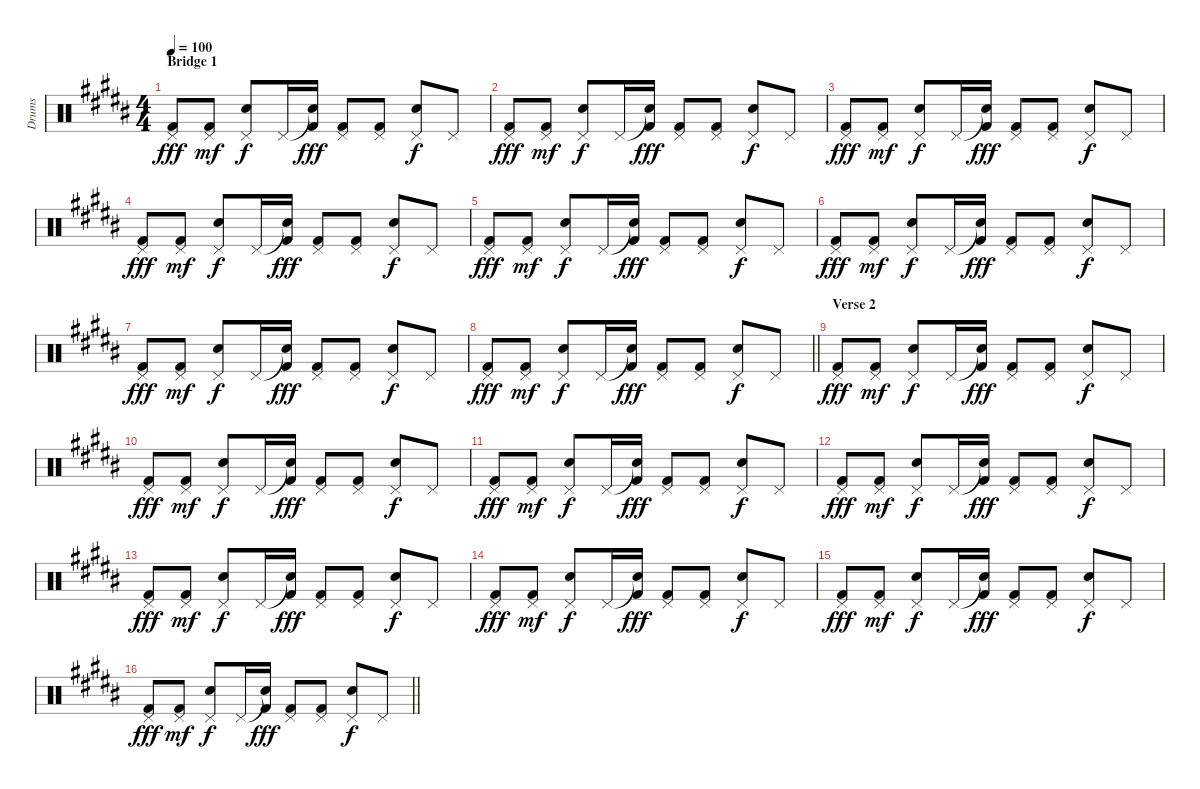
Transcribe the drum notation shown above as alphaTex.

\track ("Drums" "Drums") {instrument percussion}
\staff {score}
\articulation defaults
\ts (4 4)
\section ("" "Bridge 1")
\tempo 100
\clef neutral
\ks b
("Pedal Hi-Hat (hit)" "Kick (hit) 2").8{dy fff} ("Pedal Hi-Hat (hit)" "Kick (hit) 2").8{dy mf} ("Pedal Hi-Hat (hit)" "Snare (hit) 2").8{dy f} "Pedal Hi-Hat (hit)".16 ("Snare (hit)"{t} "Kick (hit) 2").16{dy fff} ("Pedal Hi-Hat (hit)" "Kick (hit) 2").8 ("Pedal Hi-Hat (hit)" "Kick (hit) 2").8 ("Pedal Hi-Hat (hit)" "Snare (hit) 2").8{dy f} "Pedal Hi-Hat (hit)".8 |
("Pedal Hi-Hat (hit)" "Kick (hit) 2").8{dy fff} ("Pedal Hi-Hat (hit)" "Kick (hit) 2").8{dy mf} ("Pedal Hi-Hat (hit)" "Snare (hit) 2").8{dy f} "Pedal Hi-Hat (hit)".16 ("Snare (hit)"{t} "Kick (hit) 2").16{dy fff} ("Pedal Hi-Hat (hit)" "Kick (hit) 2").8 ("Pedal Hi-Hat (hit)" "Kick (hit) 2").8 ("Pedal Hi-Hat (hit)" "Snare (hit) 2").8{dy f} "Pedal Hi-Hat (hit)".8 |
("Pedal Hi-Hat (hit)" "Kick (hit) 2").8{dy fff} ("Pedal Hi-Hat (hit)" "Kick (hit) 2").8{dy mf} ("Pedal Hi-Hat (hit)" "Snare (hit) 2").8{dy f} "Pedal Hi-Hat (hit)".16 ("Snare (hit)"{t} "Kick (hit) 2").16{dy fff} ("Pedal Hi-Hat (hit)" "Kick (hit) 2").8 ("Pedal Hi-Hat (hit)" "Kick (hit) 2").8 ("Pedal Hi-Hat (hit)" "Snare (hit) 2").8{dy f} "Pedal Hi-Hat (hit)".8 |
("Pedal Hi-Hat (hit)" "Kick (hit) 2").8{dy fff} ("Pedal Hi-Hat (hit)" "Kick (hit) 2").8{dy mf} ("Pedal Hi-Hat (hit)" "Snare (hit) 2").8{dy f} "Pedal Hi-Hat (hit)".16 ("Snare (hit)"{t} "Kick (hit) 2").16{dy fff} ("Pedal Hi-Hat (hit)" "Kick (hit) 2").8 ("Pedal Hi-Hat (hit)" "Kick (hit) 2").8 ("Pedal Hi-Hat (hit)" "Snare (hit) 2").8{dy f} "Pedal Hi-Hat (hit)".8 |
("Pedal Hi-Hat (hit)" "Kick (hit) 2").8{dy fff} ("Pedal Hi-Hat (hit)" "Kick (hit) 2").8{dy mf} ("Pedal Hi-Hat (hit)" "Snare (hit) 2").8{dy f} "Pedal Hi-Hat (hit)".16 ("Snare (hit)"{t} "Kick (hit) 2").16{dy fff} ("Pedal Hi-Hat (hit)" "Kick (hit) 2").8 ("Pedal Hi-Hat (hit)" "Kick (hit) 2").8 ("Pedal Hi-Hat (hit)" "Snare (hit) 2").8{dy f} "Pedal Hi-Hat (hit)".8 |
("Pedal Hi-Hat (hit)" "Kick (hit) 2").8{dy fff} ("Pedal Hi-Hat (hit)" "Kick (hit) 2").8{dy mf} ("Pedal Hi-Hat (hit)" "Snare (hit) 2").8{dy f} "Pedal Hi-Hat (hit)".16 ("Snare (hit)"{t} "Kick (hit) 2").16{dy fff} ("Pedal Hi-Hat (hit)" "Kick (hit) 2").8 ("Pedal Hi-Hat (hit)" "Kick (hit) 2").8 ("Pedal Hi-Hat (hit)" "Snare (hit) 2").8{dy f} "Pedal Hi-Hat (hit)".8 |
("Pedal Hi-Hat (hit)" "Kick (hit) 2").8{dy fff} ("Pedal Hi-Hat (hit)" "Kick (hit) 2").8{dy mf} ("Pedal Hi-Hat (hit)" "Snare (hit) 2").8{dy f} "Pedal Hi-Hat (hit)".16 ("Snare (hit)"{t} "Kick (hit) 2").16{dy fff} ("Pedal Hi-Hat (hit)" "Kick (hit) 2").8 ("Pedal Hi-Hat (hit)" "Kick (hit) 2").8 ("Pedal Hi-Hat (hit)" "Snare (hit) 2").8{dy f} "Pedal Hi-Hat (hit)".8 |
\barLineRight lightlight
("Pedal Hi-Hat (hit)" "Kick (hit) 2").8{dy fff} ("Pedal Hi-Hat (hit)" "Kick (hit) 2").8{dy mf} ("Pedal Hi-Hat (hit)" "Snare (hit) 2").8{dy f} "Pedal Hi-Hat (hit)".16 ("Snare (hit)"{t} "Kick (hit) 2").16{dy fff} ("Pedal Hi-Hat (hit)" "Kick (hit) 2").8 ("Pedal Hi-Hat (hit)" "Kick (hit) 2").8 ("Pedal Hi-Hat (hit)" "Snare (hit) 2").8{dy f} "Pedal Hi-Hat (hit)".8 |
\section ("" "Verse 2")
("Pedal Hi-Hat (hit)" "Kick (hit) 2").8{dy fff} ("Pedal Hi-Hat (hit)" "Kick (hit) 2").8{dy mf} ("Pedal Hi-Hat (hit)" "Snare (hit) 2").8{dy f} "Pedal Hi-Hat (hit)".16 ("Snare (hit)"{t} "Kick (hit) 2").16{dy fff} ("Pedal Hi-Hat (hit)" "Kick (hit) 2").8 ("Pedal Hi-Hat (hit)" "Kick (hit) 2").8 ("Pedal Hi-Hat (hit)" "Snare (hit) 2").8{dy f} "Pedal Hi-Hat (hit)".8 |
("Pedal Hi-Hat (hit)" "Kick (hit) 2").8{dy fff} ("Pedal Hi-Hat (hit)" "Kick (hit) 2").8{dy mf} ("Pedal Hi-Hat (hit)" "Snare (hit) 2").8{dy f} "Pedal Hi-Hat (hit)".16 ("Snare (hit)"{t} "Kick (hit) 2").16{dy fff} ("Pedal Hi-Hat (hit)" "Kick (hit) 2").8 ("Pedal Hi-Hat (hit)" "Kick (hit) 2").8 ("Pedal Hi-Hat (hit)" "Snare (hit) 2").8{dy f} "Pedal Hi-Hat (hit)".8 |
("Pedal Hi-Hat (hit)" "Kick (hit) 2").8{dy fff} ("Pedal Hi-Hat (hit)" "Kick (hit) 2").8{dy mf} ("Pedal Hi-Hat (hit)" "Snare (hit) 2").8{dy f} "Pedal Hi-Hat (hit)".16 ("Snare (hit)"{t} "Kick (hit) 2").16{dy fff} ("Pedal Hi-Hat (hit)" "Kick (hit) 2").8 ("Pedal Hi-Hat (hit)" "Kick (hit) 2").8 ("Pedal Hi-Hat (hit)" "Snare (hit) 2").8{dy f} "Pedal Hi-Hat (hit)".8 |
("Pedal Hi-Hat (hit)" "Kick (hit) 2").8{dy fff} ("Pedal Hi-Hat (hit)" "Kick (hit) 2").8{dy mf} ("Pedal Hi-Hat (hit)" "Snare (hit) 2").8{dy f} "Pedal Hi-Hat (hit)".16 ("Snare (hit)"{t} "Kick (hit) 2").16{dy fff} ("Pedal Hi-Hat (hit)" "Kick (hit) 2").8 ("Pedal Hi-Hat (hit)" "Kick (hit) 2").8 ("Pedal Hi-Hat (hit)" "Snare (hit) 2").8{dy f} "Pedal Hi-Hat (hit)".8 |
("Pedal Hi-Hat (hit)" "Kick (hit) 2").8{dy fff} ("Pedal Hi-Hat (hit)" "Kick (hit) 2").8{dy mf} ("Pedal Hi-Hat (hit)" "Snare (hit) 2").8{dy f} "Pedal Hi-Hat (hit)".16 ("Snare (hit)"{t} "Kick (hit) 2").16{dy fff} ("Pedal Hi-Hat (hit)" "Kick (hit) 2").8 ("Pedal Hi-Hat (hit)" "Kick (hit) 2").8 ("Pedal Hi-Hat (hit)" "Snare (hit) 2").8{dy f} "Pedal Hi-Hat (hit)".8 |
("Pedal Hi-Hat (hit)" "Kick (hit) 2").8{dy fff} ("Pedal Hi-Hat (hit)" "Kick (hit) 2").8{dy mf} ("Pedal Hi-Hat (hit)" "Snare (hit) 2").8{dy f} "Pedal Hi-Hat (hit)".16 ("Snare (hit)"{t} "Kick (hit) 2").16{dy fff} ("Pedal Hi-Hat (hit)" "Kick (hit) 2").8 ("Pedal Hi-Hat (hit)" "Kick (hit) 2").8 ("Pedal Hi-Hat (hit)" "Snare (hit) 2").8{dy f} "Pedal Hi-Hat (hit)".8 |
("Pedal Hi-Hat (hit)" "Kick (hit) 2").8{dy fff} ("Pedal Hi-Hat (hit)" "Kick (hit) 2").8{dy mf} ("Pedal Hi-Hat (hit)" "Snare (hit) 2").8{dy f} "Pedal Hi-Hat (hit)".16 ("Snare (hit)"{t} "Kick (hit) 2").16{dy fff} ("Pedal Hi-Hat (hit)" "Kick (hit) 2").8 ("Pedal Hi-Hat (hit)" "Kick (hit) 2").8 ("Pedal Hi-Hat (hit)" "Snare (hit) 2").8{dy f} "Pedal Hi-Hat (hit)".8 |
\barLineRight lightlight
("Pedal Hi-Hat (hit)" "Kick (hit) 2").8{dy fff} ("Pedal Hi-Hat (hit)" "Kick (hit) 2").8{dy mf} ("Pedal Hi-Hat (hit)" "Snare (hit) 2").8{dy f} "Pedal Hi-Hat (hit)".16 ("Snare (hit)"{t} "Kick (hit) 2").16{dy fff} ("Pedal Hi-Hat (hit)" "Kick (hit) 2").8 ("Pedal Hi-Hat (hit)" "Kick (hit) 2").8 ("Pedal Hi-Hat (hit)" "Snare (hit) 2").8{dy f} "Pedal Hi-Hat (hit)".8
